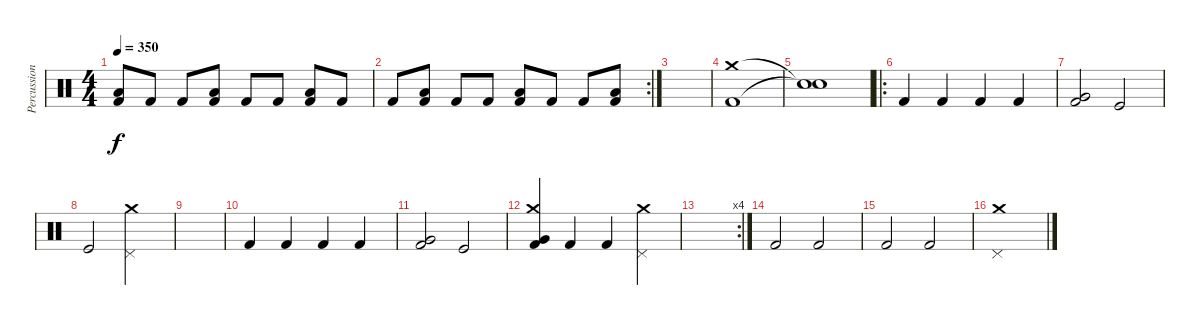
\track ("Percussion" "Percussion") {instrument percussion}
\staff {score}
\articulation defaults
\ts (4 4)
\tempo 350
\clef neutral
\ks c
("Low Floor Tom (hit)" "Kick (hit) 2").8{dy f} "Kick (hit) 2".8 "Kick (hit) 2".8 ("Low Floor Tom (hit)" "Kick (hit) 2").8 "Kick (hit) 2".8 "Kick (hit) 2".8 ("Low Floor Tom (hit)" "Kick (hit) 2").8 "Kick (hit) 2".8 |
\rc 2 "Kick (hit) 2".8
("Low Floor Tom (hit)" "Kick (hit) 2").8 "Kick (hit) 2".8 "Kick (hit) 2".8 ("Low Floor Tom (hit)" "Kick (hit) 2").8 "Kick (hit) 2".8 "Kick (hit) 2".8 ("Low Floor Tom (hit)" "Kick (hit) 2").8 |
|
("Crash medium (hit)" "Kick (hit) 2").1 |
("Snare (hit)"{t} "Snare (hit)"{t}).1 |
\ro "Kick (hit) 2".4 "Kick (hit) 2".4 "Kick (hit) 2".4 "Kick (hit) 2".4
|
("Very Low Tom (hit)" "Kick (hit) 2").2 "Kick (hit)".2 |
"Kick (hit)".2 ("Crash medium (hit)" "Pedal Hi-Hat (hit)").2 |
|
"Kick (hit) 2".4 "Kick (hit) 2".4 "Kick (hit) 2".4 "Kick (hit) 2".4 |
("Very Low Tom (hit)" "Kick (hit) 2").2 "Kick (hit)".2 |
("Crash medium (hit)" "Very Low Tom (hit)" "Kick (hit) 2").4 "Kick (hit) 2".4 "Kick (hit) 2".4 ("Crash medium (hit)" "Pedal Hi-Hat (hit)").4 |
\rc 4
|
"Kick (hit) 2".2 "Kick (hit) 2".2 |
"Kick (hit) 2".2 "Kick (hit) 2".2 |
("Crash medium (hit)" "Pedal Hi-Hat (hit)").1
